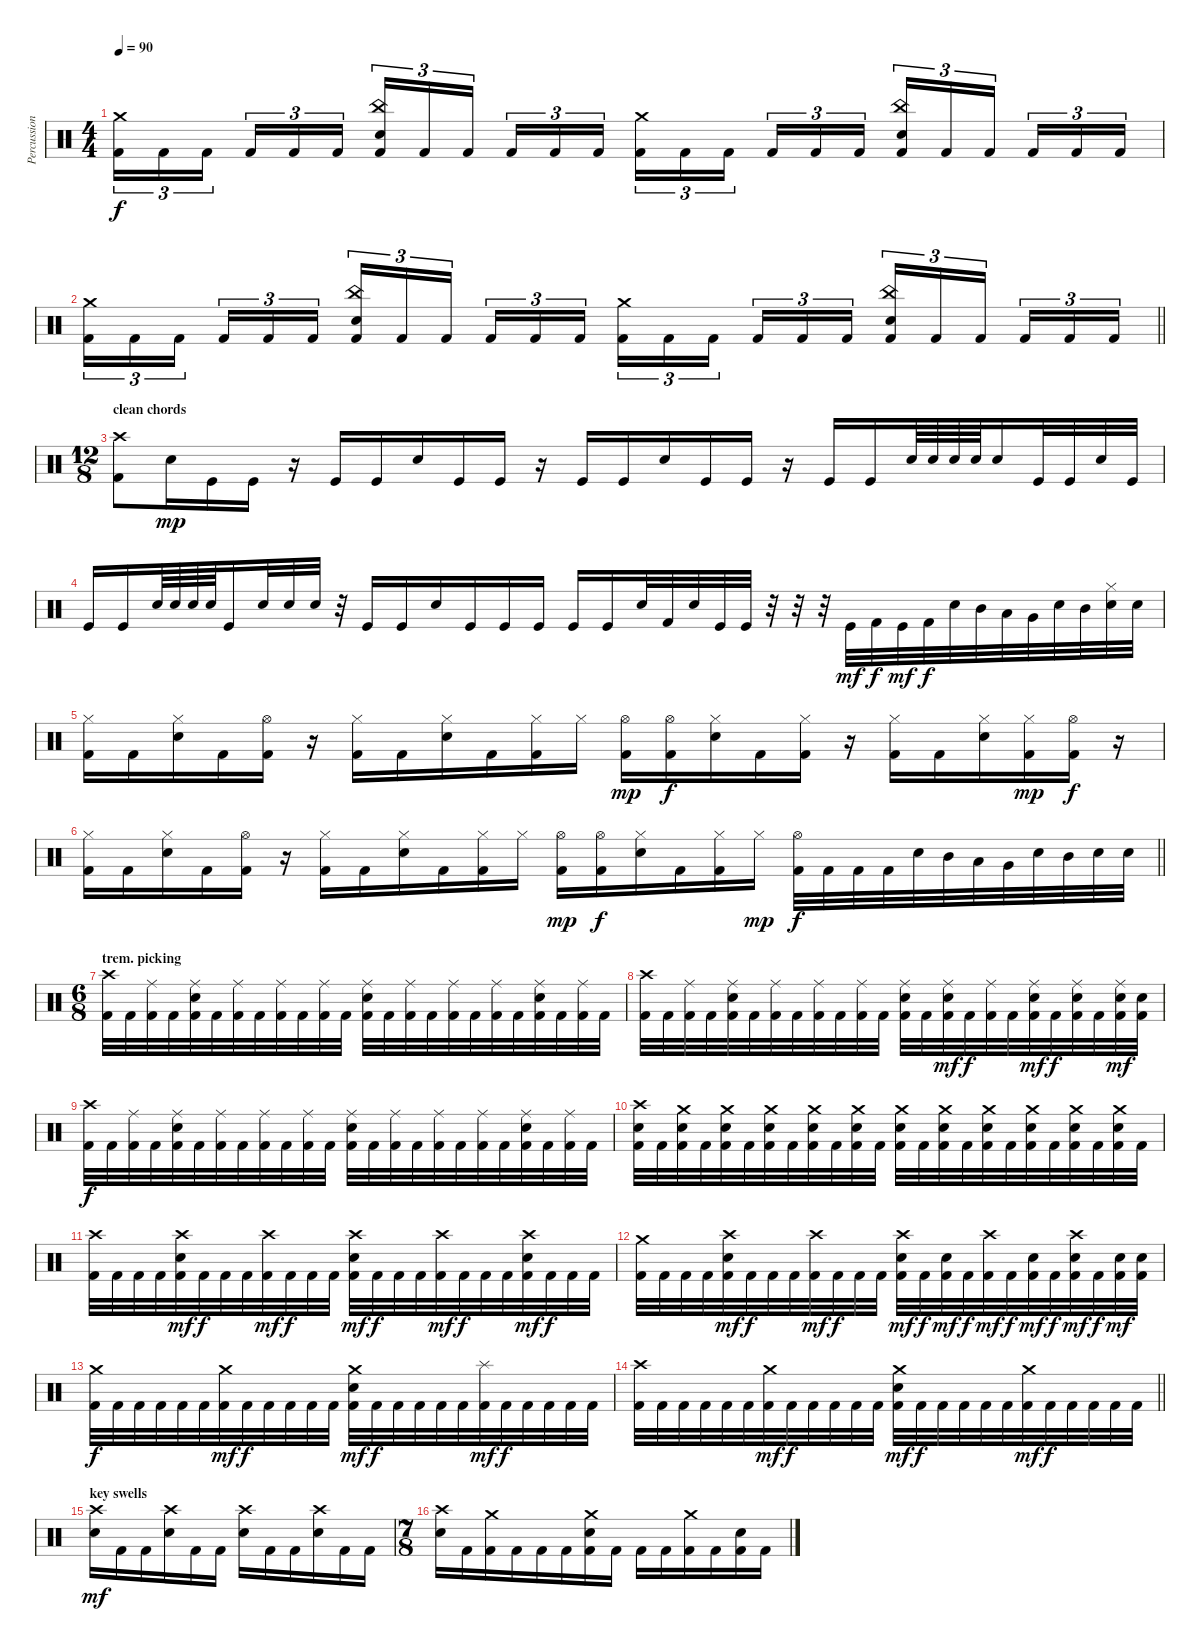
\track ("Percussion" "Percussion") {instrument percussion}
\staff {score}
\articulation defaults
\ts (4 4)
\tempo 90
\clef neutral
\ks c
("Crash medium (hit)" "Kick (hit) 2").16{tu (3 2) dy f} "Kick (hit) 2".16{tu (3 2)} "Kick (hit) 2".16{tu (3 2) beam splitsecondary} "Kick (hit) 2".16{tu (3 2)} "Kick (hit) 2".16{tu (3 2)} "Kick (hit) 2".16{tu (3 2)} ("China (hit)" "Electric Snare (hit)" "Kick (hit) 2").16{tu (3 2)} "Kick (hit) 2".16{tu (3 2)} "Kick (hit) 2".16{tu (3 2) beam splitsecondary} "Kick (hit) 2".16{tu (3 2)} "Kick (hit) 2".16{tu (3 2)} "Kick (hit) 2".16{tu (3 2)} ("Crash medium (hit)" "Kick (hit) 2").16{tu (3 2)} "Kick (hit) 2".16{tu (3 2)} "Kick (hit) 2".16{tu (3 2) beam splitsecondary} "Kick (hit) 2".16{tu (3 2)} "Kick (hit) 2".16{tu (3 2)} "Kick (hit) 2".16{tu (3 2)} ("China (hit)" "Electric Snare (hit)" "Kick (hit) 2").16{tu (3 2)} "Kick (hit) 2".16{tu (3 2)} "Kick (hit) 2".16{tu (3 2) beam splitsecondary} "Kick (hit) 2".16{tu (3 2)} "Kick (hit) 2".16{tu (3 2)} "Kick (hit) 2".16{tu (3 2)} |
\barLineRight lightlight
("Crash medium (hit)" "Kick (hit) 2").16{tu (3 2)} "Kick (hit) 2".16{tu (3 2)} "Kick (hit) 2".16{tu (3 2) beam splitsecondary} "Kick (hit) 2".16{tu (3 2)} "Kick (hit) 2".16{tu (3 2)} "Kick (hit) 2".16{tu (3 2)} ("China (hit)" "Electric Snare (hit)" "Kick (hit) 2").16{tu (3 2)} "Kick (hit) 2".16{tu (3 2)} "Kick (hit) 2".16{tu (3 2) beam splitsecondary} "Kick (hit) 2".16{tu (3 2)} "Kick (hit) 2".16{tu (3 2)} "Kick (hit) 2".16{tu (3 2)} ("Crash medium (hit)" "Kick (hit) 2").16{tu (3 2)} "Kick (hit) 2".16{tu (3 2)} "Kick (hit) 2".16{tu (3 2) beam splitsecondary} "Kick (hit) 2".16{tu (3 2)} "Kick (hit) 2".16{tu (3 2)} "Kick (hit) 2".16{tu (3 2)} ("China (hit)" "Electric Snare (hit)" "Kick (hit) 2").16{tu (3 2)} "Kick (hit) 2".16{tu (3 2)} "Kick (hit) 2".16{tu (3 2) beam splitsecondary} "Kick (hit) 2".16{tu (3 2)} "Kick (hit) 2".16{tu (3 2)} "Kick (hit) 2".16{tu (3 2)} |
\ts (12 8)
\section ("" "clean chords")
("Crash high (hit)" "Kick (hit) 2").8 "Snare (hit) 2".16{dy mp} "Kick (hit)".16 "Kick (hit)".16 r.16 "Kick (hit)".16 "Kick (hit)".16 "Snare (hit) 2".16 "Kick (hit)".16 "Kick (hit)".16 r.16 "Kick (hit)".16 "Kick (hit)".16 "Snare (hit) 2".16 "Kick (hit)".16 "Kick (hit)".16 r.16 "Kick (hit)".16 "Kick (hit)".16 "Snare (hit) 2".64 "Snare (hit) 2".64 "Snare (hit) 2".64 "Snare (hit) 2".64 "Snare (hit) 2".16 "Kick (hit)".32 "Kick (hit)".32 "Snare (hit) 2".32 "Kick (hit)".32 |
"Kick (hit)".16 "Kick (hit)".16 "Snare (hit) 2".64 "Snare (hit) 2".64 "Snare (hit) 2".64 "Snare (hit) 2".64 "Kick (hit)".16 "Snare (hit) 2".32 "Snare (hit) 2".32 "Snare (hit) 2".32 r.32 "Kick (hit)".16 "Kick (hit)".16 "Snare (hit) 2".16 "Kick (hit)".16 "Kick (hit)".16 "Kick (hit)".16 "Kick (hit)".16 "Kick (hit)".16 "Snare (hit) 2".32 "Kick (hit) 2".32 "Snare (hit) 2".32 "Kick (hit)".32 "Kick (hit)".32 r.32 r.32 r.32 "Kick (hit)".32{dy mf} "Kick (hit) 2".32{dy f} "Kick (hit)".32{dy mf} "Kick (hit) 2".32{dy f} "Electric Snare (hit)".32 "Mid Tom (hit)".32 "Low Tom (hit)".32 "Very Low Tom (hit)".32 "Electric Snare (hit)".32 "Mid Tom (hit)".32 ("Hi-Hat (closed)" "Electric Snare (hit)").32 "Electric Snare (hit)".32 |
("Hi-Hat (closed)" "Kick (hit) 2").16 "Kick (hit) 2".16 ("Hi-Hat (closed)" "Electric Snare (hit)").16 "Kick (hit) 2".16 ("Hi-Hat (open)" "Kick (hit) 2").16 r.16 ("Hi-Hat (closed)" "Kick (hit) 2").16 "Kick (hit) 2".16 ("Hi-Hat (closed)" "Electric Snare (hit)").16 "Kick (hit) 2".16 ("Hi-Hat (closed)" "Kick (hit) 2").16 "Hi-Hat (closed)".16 ("Hi-Hat (open)" "Kick (hit) 2").16{dy mp} ("Hi-Hat (open)" "Kick (hit) 2").16{dy f} ("Hi-Hat (closed)" "Electric Snare (hit)").16 "Kick (hit) 2".16 ("Hi-Hat (closed)" "Kick (hit) 2").16 r.16 ("Hi-Hat (closed)" "Kick (hit) 2").16 "Kick (hit) 2".16 ("Hi-Hat (closed)" "Electric Snare (hit)").16 ("Hi-Hat (closed)" "Kick (hit) 2").16{dy mp} ("Hi-Hat (open)" "Kick (hit) 2").16{dy f} r.16 |
\barLineRight lightlight
("Hi-Hat (closed)" "Kick (hit) 2").16 "Kick (hit) 2".16 ("Hi-Hat (closed)" "Electric Snare (hit)").16 "Kick (hit) 2".16 ("Hi-Hat (open)" "Kick (hit) 2").16 r.16 ("Hi-Hat (closed)" "Kick (hit) 2").16 "Kick (hit) 2".16 ("Hi-Hat (closed)" "Electric Snare (hit)").16 "Kick (hit) 2".16 ("Hi-Hat (closed)" "Kick (hit) 2").16 "Hi-Hat (closed)".16 ("Hi-Hat (open)" "Kick (hit) 2").16{dy mp} ("Hi-Hat (open)" "Kick (hit) 2").16{dy f} ("Hi-Hat (closed)" "Electric Snare (hit)").16 "Kick (hit) 2".16 ("Hi-Hat (closed)" "Kick (hit) 2").16 "Hi-Hat (closed)".16{dy mp} ("Hi-Hat (open)" "Kick (hit) 2").32{dy f} "Kick (hit) 2".32 "Kick (hit) 2".32 "Kick (hit) 2".32 "Electric Snare (hit)".32 "Mid Tom (hit)".32 "Low Tom (hit)".32 "Very Low Tom (hit)".32 "Electric Snare (hit)".32 "Mid Tom (hit)".32 "Electric Snare (hit)".32 "Electric Snare (hit)".32 |
\ts (6 8)
\section ("" "trem. picking")
("Crash high (hit)" "Kick (hit) 2").32 "Kick (hit) 2".32 ("Ride (middle)" "Kick (hit) 2").32 "Kick (hit) 2".32 ("Ride (middle)" "Electric Snare (hit)" "Kick (hit) 2").32 "Kick (hit) 2".32 ("Ride (middle)" "Kick (hit) 2").32 "Kick (hit) 2".32 ("Ride (middle)" "Kick (hit) 2").32 "Kick (hit) 2".32 ("Ride (middle)" "Kick (hit) 2").32 "Kick (hit) 2".32 ("Ride (middle)" "Electric Snare (hit)" "Kick (hit) 2").32 "Kick (hit) 2".32 ("Ride (middle)" "Kick (hit) 2").32 "Kick (hit) 2".32 ("Ride (middle)" "Kick (hit) 2").32 "Kick (hit) 2".32 ("Ride (middle)" "Kick (hit) 2").32 "Kick (hit) 2".32 ("Ride (middle)" "Electric Snare (hit)" "Kick (hit) 2").32 "Kick (hit) 2".32 ("Ride (middle)" "Kick (hit) 2").32 "Kick (hit) 2".32 |
("Crash high (hit)" "Kick (hit) 2").32 "Kick (hit) 2".32 ("Ride (middle)" "Kick (hit) 2").32 "Kick (hit) 2".32 ("Ride (middle)" "Electric Snare (hit)" "Kick (hit) 2").32 "Kick (hit) 2".32 ("Ride (middle)" "Kick (hit) 2").32 "Kick (hit) 2".32 ("Ride (middle)" "Kick (hit) 2").32 "Kick (hit) 2".32 ("Ride (middle)" "Kick (hit) 2").32 "Kick (hit) 2".32 ("Ride (middle)" "Electric Snare (hit)" "Kick (hit) 2").32 "Kick (hit) 2".32 ("Ride (middle)" "Electric Snare (hit)" "Kick (hit) 2").32{dy mf} "Kick (hit) 2".32{dy f} ("Ride (middle)" "Kick (hit) 2").32 "Kick (hit) 2".32 ("Ride (middle)" "Electric Snare (hit)" "Kick (hit) 2").32{dy mf} "Kick (hit) 2".32{dy f} ("Ride (middle)" "Electric Snare (hit)" "Kick (hit) 2").32 "Kick (hit) 2".32 ("Ride (middle)" "Electric Snare (hit)" "Kick (hit) 2").32{dy mf} ("Electric Snare (hit)" "Kick (hit) 2").32 |
("Crash high (hit)" "Kick (hit) 2").32{dy f} "Kick (hit) 2".32 ("Ride (middle)" "Kick (hit) 2").32 "Kick (hit) 2".32 ("Ride (middle)" "Electric Snare (hit)" "Kick (hit) 2").32 "Kick (hit) 2".32 ("Ride (middle)" "Kick (hit) 2").32 "Kick (hit) 2".32 ("Ride (middle)" "Kick (hit) 2").32 "Kick (hit) 2".32 ("Ride (middle)" "Kick (hit) 2").32 "Kick (hit) 2".32 ("Ride (middle)" "Electric Snare (hit)" "Kick (hit) 2").32 "Kick (hit) 2".32 ("Ride (middle)" "Kick (hit) 2").32 "Kick (hit) 2".32 ("Ride (middle)" "Kick (hit) 2").32 "Kick (hit) 2".32 ("Ride (middle)" "Kick (hit) 2").32 "Kick (hit) 2".32 ("Ride (middle)" "Electric Snare (hit)" "Kick (hit) 2").32 "Kick (hit) 2".32 ("Ride (middle)" "Kick (hit) 2").32 "Kick (hit) 2".32 |
("Crash high (hit)" "Electric Snare (hit)" "Kick (hit) 2").32 "Kick (hit) 2".32 ("Crash medium (hit)" "Electric Snare (hit)" "Kick (hit) 2").32 "Kick (hit) 2".32 ("Crash medium (hit)" "Electric Snare (hit)" "Kick (hit) 2").32 "Kick (hit) 2".32 ("Crash medium (hit)" "Electric Snare (hit)" "Kick (hit) 2").32 "Kick (hit) 2".32 ("Crash medium (hit)" "Electric Snare (hit)" "Kick (hit) 2").32 "Kick (hit) 2".32 ("Crash medium (hit)" "Electric Snare (hit)" "Kick (hit) 2").32 "Kick (hit) 2".32 ("Crash medium (hit)" "Electric Snare (hit)" "Kick (hit) 2").32 "Kick (hit) 2".32 ("Crash medium (hit)" "Electric Snare (hit)" "Kick (hit) 2").32 "Kick (hit) 2".32 ("Crash medium (hit)" "Electric Snare (hit)" "Kick (hit) 2").32 "Kick (hit) 2".32 ("Crash medium (hit)" "Electric Snare (hit)" "Kick (hit) 2").32 "Kick (hit) 2".32 ("Crash medium (hit)" "Electric Snare (hit)" "Kick (hit) 2").32 "Kick (hit) 2".32 ("Crash medium (hit)" "Electric Snare (hit)" "Kick (hit) 2").32 "Kick (hit) 2".32 |
("Crash high (hit)" "Kick (hit) 2").32 "Kick (hit) 2".32 "Kick (hit) 2".32 "Kick (hit) 2".32 ("Crash high (hit)" "Electric Snare (hit)" "Kick (hit) 2").32{dy mf} "Kick (hit) 2".32{dy f} "Kick (hit) 2".32 "Kick (hit) 2".32 ("Crash high (hit)" "Kick (hit) 2").32{dy mf} "Kick (hit) 2".32{dy f} "Kick (hit) 2".32 "Kick (hit) 2".32 ("Crash high (hit)" "Electric Snare (hit)" "Kick (hit) 2").32{dy mf} "Kick (hit) 2".32{dy f} "Kick (hit) 2".32 "Kick (hit) 2".32 ("Crash high (hit)" "Kick (hit) 2").32{dy mf} "Kick (hit) 2".32{dy f} "Kick (hit) 2".32 "Kick (hit) 2".32 ("Crash high (hit)" "Electric Snare (hit)" "Kick (hit) 2").32{dy mf} "Kick (hit) 2".32{dy f} "Kick (hit) 2".32 "Kick (hit) 2".32 |
("Crash medium (hit)" "Kick (hit) 2").32 "Kick (hit) 2".32 "Kick (hit) 2".32 "Kick (hit) 2".32 ("Crash high (hit)" "Electric Snare (hit)" "Kick (hit) 2").32{dy mf} "Kick (hit) 2".32{dy f} "Kick (hit) 2".32 "Kick (hit) 2".32 ("Crash high (hit)" "Kick (hit) 2").32{dy mf} "Kick (hit) 2".32{dy f} "Kick (hit) 2".32 "Kick (hit) 2".32 ("Crash high (hit)" "Electric Snare (hit)" "Kick (hit) 2").32{dy mf} "Kick (hit) 2".32{dy f} ("Electric Snare (hit)" "Kick (hit) 2").32{dy mf} "Kick (hit) 2".32{dy f} ("Crash high (hit)" "Kick (hit) 2").32{dy mf} "Kick (hit) 2".32{dy f} ("Electric Snare (hit)" "Kick (hit) 2").32{dy mf} "Kick (hit) 2".32{dy f} ("Crash high (hit)" "Electric Snare (hit)" "Kick (hit) 2").32{dy mf} "Kick (hit) 2".32{dy f} ("Electric Snare (hit)" "Kick (hit) 2").32{dy mf} ("Electric Snare (hit)" "Kick (hit) 2").32 |
("Crash medium (hit)" "Kick (hit) 2").32{dy f} "Kick (hit) 2".32 "Kick (hit) 2".32 "Kick (hit) 2".32 "Kick (hit) 2".32 "Kick (hit) 2".32 ("Crash medium (hit)" "Kick (hit) 2").32{dy mf} "Kick (hit) 2".32{dy f} "Kick (hit) 2".32 "Kick (hit) 2".32 "Kick (hit) 2".32 "Kick (hit) 2".32 ("Crash medium (hit)" "Electric Snare (hit)" "Kick (hit) 2").32{dy mf} "Kick (hit) 2".32{dy f} "Kick (hit) 2".32 "Kick (hit) 2".32 "Kick (hit) 2".32 "Kick (hit) 2".32 ("Splash (hit)" "Kick (hit) 2").32{dy mf} "Kick (hit) 2".32{dy f} "Kick (hit) 2".32 "Kick (hit) 2".32 "Kick (hit) 2".32 "Kick (hit) 2".32 |
\barLineRight lightlight
("Crash high (hit)" "Kick (hit) 2").32 "Kick (hit) 2".32 "Kick (hit) 2".32 "Kick (hit) 2".32 "Kick (hit) 2".32 "Kick (hit) 2".32 ("Crash medium (hit)" "Kick (hit) 2").32{dy mf} "Kick (hit) 2".32{dy f} "Kick (hit) 2".32 "Kick (hit) 2".32 "Kick (hit) 2".32 "Kick (hit) 2".32 ("Crash medium (hit)" "Electric Snare (hit)" "Kick (hit) 2").32{dy mf} "Kick (hit) 2".32{dy f} "Kick (hit) 2".32 "Kick (hit) 2".32 "Kick (hit) 2".32 "Kick (hit) 2".32 ("Crash medium (hit)" "Kick (hit) 2").32{dy mf} "Kick (hit) 2".32{dy f} "Kick (hit) 2".32 "Kick (hit) 2".32 "Kick (hit) 2".32 "Kick (hit) 2".32 |
\section ("" "key swells")
("Crash high (hit)" "Electric Snare (hit)").16{dy mf} "Kick (hit) 2".16 "Kick (hit) 2".16 ("Crash high (hit)" "Electric Snare (hit)").16 "Kick (hit) 2".16 "Kick (hit) 2".16 ("Crash high (hit)" "Electric Snare (hit)").16 "Kick (hit) 2".16 "Kick (hit) 2".16 ("Crash high (hit)" "Electric Snare (hit)").16 "Kick (hit) 2".16 "Kick (hit) 2".16 |
\ts (7 8)
("Crash high (hit)" "Electric Snare (hit)").16 "Kick (hit) 2".16 ("Crash medium (hit)" "Kick (hit) 2").16 "Kick (hit) 2".16 "Kick (hit) 2".16 "Kick (hit) 2".16 ("Crash medium (hit)" "Electric Snare (hit)" "Kick (hit) 2").16 "Kick (hit) 2".16 "Kick (hit) 2".16 "Kick (hit) 2".16 ("Crash medium (hit)" "Kick (hit) 2").16 "Kick (hit) 2".16 ("Electric Snare (hit)" "Kick (hit) 2").16 "Kick (hit) 2".16
